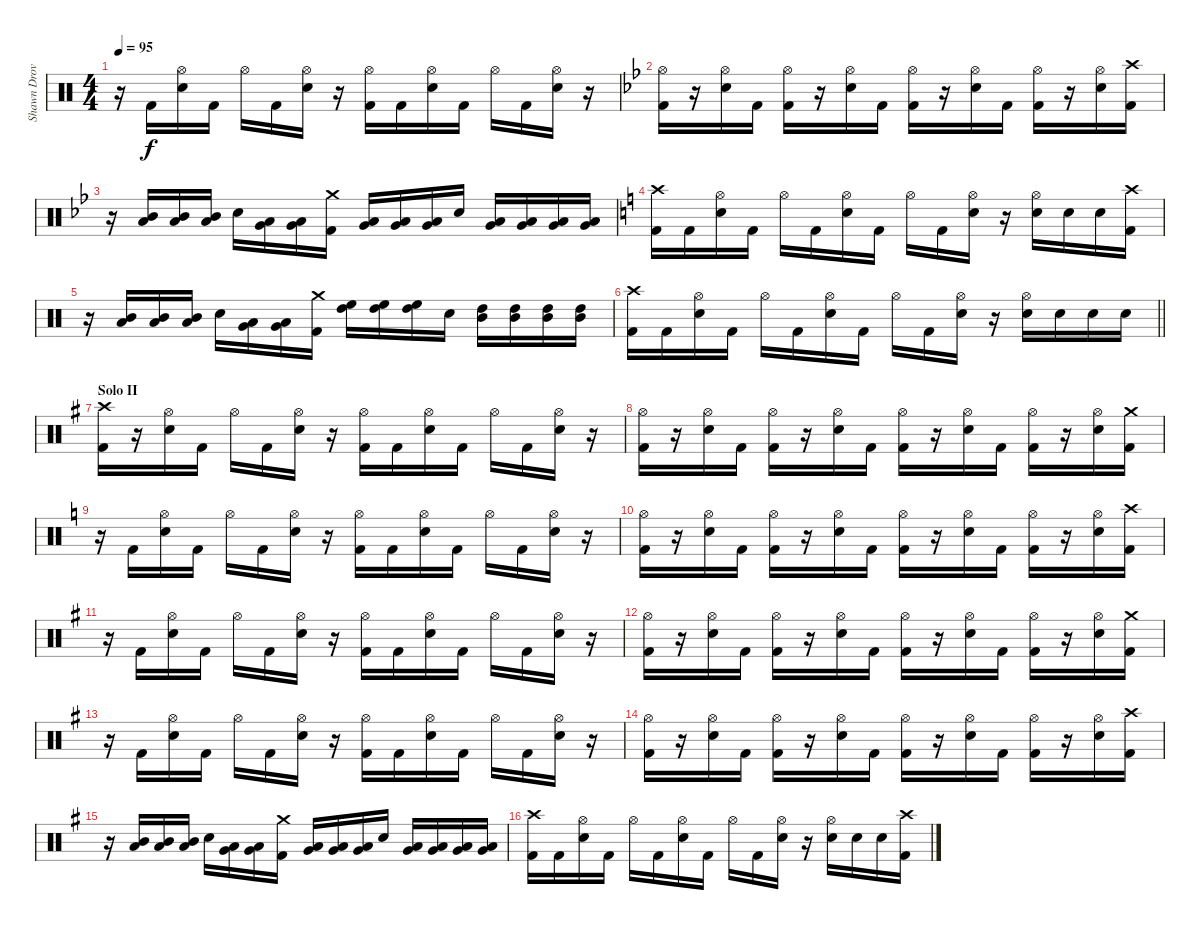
\track ("Shawn Drover" "Shawn Drov") {instrument percussion}
\staff {score}
\articulation defaults
\ts (4 4)
\tempo 95
\clef neutral
\ks c
r.16{dy f} "Kick (hit) 2".16 ("Hi-Hat (open)" "Snare (hit) 2").16 "Kick (hit) 2".16 "Hi-Hat (open)".16 "Kick (hit) 2".16 ("Hi-Hat (open)" "Snare (hit) 2").16 r.16 ("Hi-Hat (open)" "Kick (hit) 2").16 "Kick (hit) 2".16 ("Hi-Hat (open)" "Snare (hit) 2").16 "Kick (hit) 2".16 "Hi-Hat (open)".16 "Kick (hit) 2".16 ("Hi-Hat (open)" "Snare (hit) 2").16 r.16 |
\ks bb
("Hi-Hat (open)" "Kick (hit) 2").16 r.16 ("Hi-Hat (open)" "Snare (hit) 2").16 "Kick (hit) 2".16 ("Hi-Hat (open)" "Kick (hit) 2").16 r.16 ("Hi-Hat (open)" "Snare (hit) 2").16 "Kick (hit) 2".16 ("Hi-Hat (open)" "Kick (hit) 2").16 r.16 ("Hi-Hat (open)" "Snare (hit) 2").16 "Kick (hit) 2".16 ("Hi-Hat (open)" "Kick (hit) 2").16 r.16 ("Hi-Hat (open)" "Snare (hit) 2").16 ("Crash high (hit)" "Kick (hit) 2").16 |
r.16 ("Mid Tom (hit)" "Low Tom (hit)").16 ("Mid Tom (hit)" "Low Tom (hit)").16 ("Mid Tom (hit)" "Low Tom (hit)").16 "Snare (hit) 2".16 ("Low Tom (hit)" "Very Low Tom (hit)").16 ("Low Tom (hit)" "Very Low Tom (hit)").16 ("Crash medium (hit)" "Kick (hit) 2").16 ("Low Tom (hit)" "Very Low Tom (hit)").16 ("Low Tom (hit)" "Very Low Tom (hit)").16 ("Low Tom (hit)" "Very Low Tom (hit)").16 "Snare (hit) 2".16 ("Very Low Tom (hit)" "Low Floor Tom (hit)").16 ("Very Low Tom (hit)" "Low Floor Tom (hit)").16 ("Very Low Tom (hit)" "Low Floor Tom (hit)").16 ("Very Low Tom (hit)" "Low Floor Tom (hit)").16 |
\ks c
("Crash high (hit)" "Kick (hit) 2").16 "Kick (hit) 2".16 ("Hi-Hat (open)" "Snare (hit) 2").16 "Kick (hit) 2".16 "Hi-Hat (open)".16 "Kick (hit) 2".16 ("Hi-Hat (open)" "Snare (hit) 2").16 "Kick (hit) 2".16 "Hi-Hat (open)".16 "Kick (hit) 2".16 ("Hi-Hat (open)" "Snare (hit) 2").16 r.16 ("Hi-Hat (open)" "Snare (hit) 2").16 "Snare (hit) 2".16 "Snare (hit) 2".16 ("Crash high (hit)" "Kick (hit) 2").16 |
r.16 ("Mid Tom (hit)" "Low Tom (hit)").16 ("Mid Tom (hit)" "Low Tom (hit)").16 ("Mid Tom (hit)" "Low Tom (hit)").16 "Snare (hit) 2".16 ("Low Tom (hit)" "Very Low Tom (hit)").16 ("Low Tom (hit)" "Very Low Tom (hit)").16 ("Crash medium (hit)" "Kick (hit) 2").16 ("High Tom (hit)" "High Floor Tom (hit)").16 ("High Tom (hit)" "High Floor Tom (hit)").16 ("High Tom (hit)" "High Floor Tom (hit)").16 "Snare (hit) 2".16 ("High Tom (hit)" "Mid Tom (hit)").16 ("High Tom (hit)" "Mid Tom (hit)").16 ("High Tom (hit)" "Mid Tom (hit)").16 ("High Tom (hit)" "Mid Tom (hit)").16 |
\barLineRight lightlight
("Crash high (hit)" "Kick (hit) 2").16 "Kick (hit) 2".16 ("Hi-Hat (open)" "Snare (hit) 2").16 "Kick (hit) 2".16 "Hi-Hat (open)".16 "Kick (hit) 2".16 ("Hi-Hat (open)" "Snare (hit) 2").16 "Kick (hit) 2".16 "Hi-Hat (open)".16 "Kick (hit) 2".16 ("Hi-Hat (open)" "Snare (hit) 2").16 r.16 ("Hi-Hat (open)" "Snare (hit) 2").16 "Snare (hit) 2".16 "Snare (hit) 2".16 "Snare (hit) 2".16 |
\section ("" "Solo II")
\ks g
("Crash high (hit)" "Kick (hit) 2").16 r.16 ("Hi-Hat (open)" "Snare (hit) 2").16 "Kick (hit) 2".16 "Hi-Hat (open)".16 "Kick (hit) 2".16 ("Hi-Hat (open)" "Snare (hit) 2").16 r.16 ("Hi-Hat (open)" "Kick (hit) 2").16 "Kick (hit) 2".16 ("Hi-Hat (open)" "Snare (hit) 2").16 "Kick (hit) 2".16 "Hi-Hat (open)".16 "Kick (hit) 2".16 ("Hi-Hat (open)" "Snare (hit) 2").16 r.16 |
("Hi-Hat (open)" "Kick (hit) 2").16 r.16 ("Hi-Hat (open)" "Snare (hit) 2").16 "Kick (hit) 2".16 ("Hi-Hat (open)" "Kick (hit) 2").16 r.16 ("Hi-Hat (open)" "Snare (hit) 2").16 "Kick (hit) 2".16 ("Hi-Hat (open)" "Kick (hit) 2").16 r.16 ("Hi-Hat (open)" "Snare (hit) 2").16 "Kick (hit) 2".16 ("Hi-Hat (open)" "Kick (hit) 2").16 r.16 ("Hi-Hat (open)" "Snare (hit) 2").16 ("Crash medium (hit)" "Kick (hit) 2").16 |
\ks c
r.16 "Kick (hit) 2".16 ("Hi-Hat (open)" "Snare (hit) 2").16 "Kick (hit) 2".16 "Hi-Hat (open)".16 "Kick (hit) 2".16 ("Hi-Hat (open)" "Snare (hit) 2").16 r.16 ("Hi-Hat (open)" "Kick (hit) 2").16 "Kick (hit) 2".16 ("Hi-Hat (open)" "Snare (hit) 2").16 "Kick (hit) 2".16 "Hi-Hat (open)".16 "Kick (hit) 2".16 ("Hi-Hat (open)" "Snare (hit) 2").16 r.16 |
("Hi-Hat (open)" "Kick (hit) 2").16 r.16 ("Hi-Hat (open)" "Snare (hit) 2").16 "Kick (hit) 2".16 ("Hi-Hat (open)" "Kick (hit) 2").16 r.16 ("Hi-Hat (open)" "Snare (hit) 2").16 "Kick (hit) 2".16 ("Hi-Hat (open)" "Kick (hit) 2").16 r.16 ("Hi-Hat (open)" "Snare (hit) 2").16 "Kick (hit) 2".16 ("Hi-Hat (open)" "Kick (hit) 2").16 r.16 ("Hi-Hat (open)" "Snare (hit) 2").16 ("Crash high (hit)" "Kick (hit) 2").16 |
\ks g
r.16 "Kick (hit) 2".16 ("Hi-Hat (open)" "Snare (hit) 2").16 "Kick (hit) 2".16 "Hi-Hat (open)".16 "Kick (hit) 2".16 ("Hi-Hat (open)" "Snare (hit) 2").16 r.16 ("Hi-Hat (open)" "Kick (hit) 2").16 "Kick (hit) 2".16 ("Hi-Hat (open)" "Snare (hit) 2").16 "Kick (hit) 2".16 "Hi-Hat (open)".16 "Kick (hit) 2".16 ("Hi-Hat (open)" "Snare (hit) 2").16 r.16 |
("Hi-Hat (open)" "Kick (hit) 2").16 r.16 ("Hi-Hat (open)" "Snare (hit) 2").16 "Kick (hit) 2".16 ("Hi-Hat (open)" "Kick (hit) 2").16 r.16 ("Hi-Hat (open)" "Snare (hit) 2").16 "Kick (hit) 2".16 ("Hi-Hat (open)" "Kick (hit) 2").16 r.16 ("Hi-Hat (open)" "Snare (hit) 2").16 "Kick (hit) 2".16 ("Hi-Hat (open)" "Kick (hit) 2").16 r.16 ("Hi-Hat (open)" "Snare (hit) 2").16 ("Crash medium (hit)" "Kick (hit) 2").16 |
r.16 "Kick (hit) 2".16 ("Hi-Hat (open)" "Snare (hit) 2").16 "Kick (hit) 2".16 "Hi-Hat (open)".16 "Kick (hit) 2".16 ("Hi-Hat (open)" "Snare (hit) 2").16 r.16 ("Hi-Hat (open)" "Kick (hit) 2").16 "Kick (hit) 2".16 ("Hi-Hat (open)" "Snare (hit) 2").16 "Kick (hit) 2".16 "Hi-Hat (open)".16 "Kick (hit) 2".16 ("Hi-Hat (open)" "Snare (hit) 2").16 r.16 |
("Hi-Hat (open)" "Kick (hit) 2").16 r.16 ("Hi-Hat (open)" "Snare (hit) 2").16 "Kick (hit) 2".16 ("Hi-Hat (open)" "Kick (hit) 2").16 r.16 ("Hi-Hat (open)" "Snare (hit) 2").16 "Kick (hit) 2".16 ("Hi-Hat (open)" "Kick (hit) 2").16 r.16 ("Hi-Hat (open)" "Snare (hit) 2").16 "Kick (hit) 2".16 ("Hi-Hat (open)" "Kick (hit) 2").16 r.16 ("Hi-Hat (open)" "Snare (hit) 2").16 ("Crash high (hit)" "Kick (hit) 2").16 |
r.16 ("Mid Tom (hit)" "Low Tom (hit)").16 ("Mid Tom (hit)" "Low Tom (hit)").16 ("Mid Tom (hit)" "Low Tom (hit)").16 "Snare (hit) 2".16 ("Low Tom (hit)" "Very Low Tom (hit)").16 ("Low Tom (hit)" "Very Low Tom (hit)").16 ("Crash medium (hit)" "Kick (hit) 2").16 ("Low Tom (hit)" "Very Low Tom (hit)").16 ("Low Tom (hit)" "Very Low Tom (hit)").16 ("Low Tom (hit)" "Very Low Tom (hit)").16 "Snare (hit) 2".16 ("Very Low Tom (hit)" "Low Floor Tom (hit)").16 ("Very Low Tom (hit)" "Low Floor Tom (hit)").16 ("Very Low Tom (hit)" "Low Floor Tom (hit)").16 ("Very Low Tom (hit)" "Low Floor Tom (hit)").16 |
("Crash high (hit)" "Kick (hit) 2").16 "Kick (hit) 2".16 ("Hi-Hat (open)" "Snare (hit) 2").16 "Kick (hit) 2".16 "Hi-Hat (open)".16 "Kick (hit) 2".16 ("Hi-Hat (open)" "Snare (hit) 2").16 "Kick (hit) 2".16 "Hi-Hat (open)".16 "Kick (hit) 2".16 ("Hi-Hat (open)" "Snare (hit) 2").16 r.16 ("Hi-Hat (open)" "Snare (hit) 2").16 "Snare (hit) 2".16 "Snare (hit) 2".16 ("Crash high (hit)" "Kick (hit) 2").16
